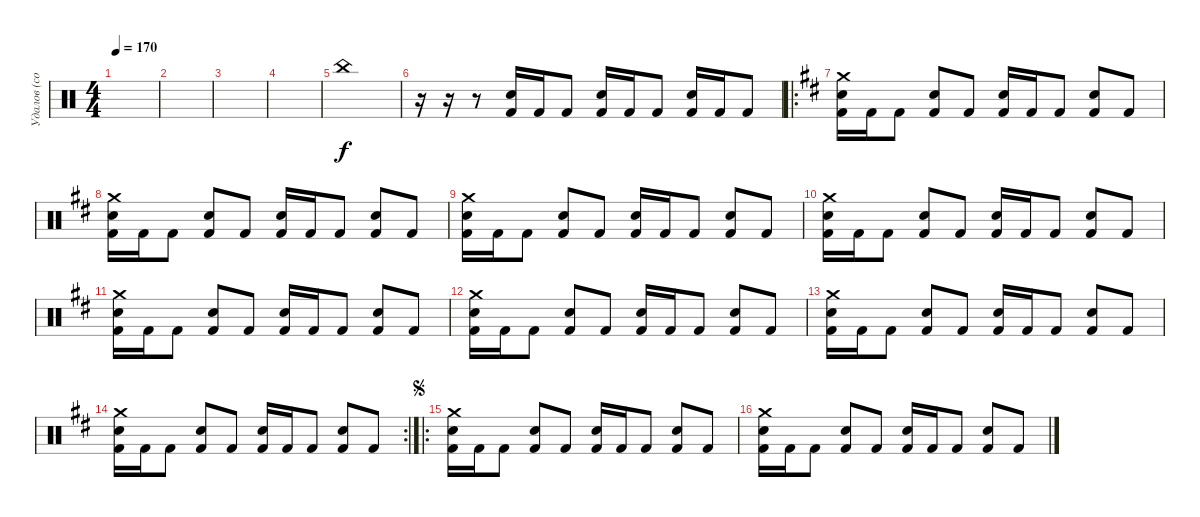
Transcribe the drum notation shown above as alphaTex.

\track ("Удалов (сорри за ударные)" "Удалов (со") {instrument percussion}
\staff {score}
\articulation defaults
\ts (4 4)
\tempo 170
\clef neutral
\ks c
|
|
|
|
"China (hit)".1 |
r.16 r.16 r.8 ("Snare (hit) 2" "Kick (hit) 2").16 "Kick (hit) 2".16 "Kick (hit) 2".8 ("Snare (hit) 2" "Kick (hit) 2").16 "Kick (hit) 2".16 "Kick (hit) 2".8 ("Snare (hit) 2" "Kick (hit) 2").16 "Kick (hit) 2".16 "Kick (hit) 2".8 |
\ro
\ks d
("Crash medium (hit)" "Snare (hit) 2" "Kick (hit) 2").16 "Kick (hit) 2".16 "Kick (hit) 2".8 ("Snare (hit) 2" "Kick (hit) 2").8 "Kick (hit) 2".8 ("Snare (hit) 2" "Kick (hit) 2").16 "Kick (hit) 2".16 "Kick (hit) 2".8 ("Snare (hit) 2" "Kick (hit) 2").8 "Kick (hit) 2".8 |
("Crash medium (hit)" "Snare (hit) 2" "Kick (hit) 2").16 "Kick (hit) 2".16 "Kick (hit) 2".8 ("Snare (hit) 2" "Kick (hit) 2").8 "Kick (hit) 2".8 ("Snare (hit) 2" "Kick (hit) 2").16 "Kick (hit) 2".16 "Kick (hit) 2".8 ("Snare (hit) 2" "Kick (hit) 2").8 "Kick (hit) 2".8 |
("Crash medium (hit)" "Snare (hit) 2" "Kick (hit) 2").16 "Kick (hit) 2".16 "Kick (hit) 2".8 ("Snare (hit) 2" "Kick (hit) 2").8 "Kick (hit) 2".8 ("Snare (hit) 2" "Kick (hit) 2").16 "Kick (hit) 2".16 "Kick (hit) 2".8 ("Snare (hit) 2" "Kick (hit) 2").8 "Kick (hit) 2".8 |
("Crash medium (hit)" "Snare (hit) 2" "Kick (hit) 2").16 "Kick (hit) 2".16 "Kick (hit) 2".8 ("Snare (hit) 2" "Kick (hit) 2").8 "Kick (hit) 2".8 ("Snare (hit) 2" "Kick (hit) 2").16 "Kick (hit) 2".16 "Kick (hit) 2".8 ("Snare (hit) 2" "Kick (hit) 2").8 "Kick (hit) 2".8 |
("Crash medium (hit)" "Snare (hit) 2" "Kick (hit) 2").16 "Kick (hit) 2".16 "Kick (hit) 2".8 ("Snare (hit) 2" "Kick (hit) 2").8 "Kick (hit) 2".8 ("Snare (hit) 2" "Kick (hit) 2").16 "Kick (hit) 2".16 "Kick (hit) 2".8 ("Snare (hit) 2" "Kick (hit) 2").8 "Kick (hit) 2".8 |
("Crash medium (hit)" "Snare (hit) 2" "Kick (hit) 2").16 "Kick (hit) 2".16 "Kick (hit) 2".8 ("Snare (hit) 2" "Kick (hit) 2").8 "Kick (hit) 2".8 ("Snare (hit) 2" "Kick (hit) 2").16 "Kick (hit) 2".16 "Kick (hit) 2".8 ("Snare (hit) 2" "Kick (hit) 2").8 "Kick (hit) 2".8 |
("Crash medium (hit)" "Snare (hit) 2" "Kick (hit) 2").16 "Kick (hit) 2".16 "Kick (hit) 2".8 ("Snare (hit) 2" "Kick (hit) 2").8 "Kick (hit) 2".8 ("Snare (hit) 2" "Kick (hit) 2").16 "Kick (hit) 2".16 "Kick (hit) 2".8 ("Snare (hit) 2" "Kick (hit) 2").8 "Kick (hit) 2".8 |
\rc 2
("Crash medium (hit)" "Snare (hit) 2" "Kick (hit) 2").16 "Kick (hit) 2".16 "Kick (hit) 2".8 ("Snare (hit) 2" "Kick (hit) 2").8 "Kick (hit) 2".8 ("Snare (hit) 2" "Kick (hit) 2").16 "Kick (hit) 2".16 "Kick (hit) 2".8 ("Snare (hit) 2" "Kick (hit) 2").8 "Kick (hit) 2".8 |
\ro
\jump segno
("Crash medium (hit)" "Snare (hit) 2" "Kick (hit) 2").16 "Kick (hit) 2".16 "Kick (hit) 2".8 ("Snare (hit) 2" "Kick (hit) 2").8 "Kick (hit) 2".8 ("Snare (hit) 2" "Kick (hit) 2").16 "Kick (hit) 2".16 "Kick (hit) 2".8 ("Snare (hit) 2" "Kick (hit) 2").8 "Kick (hit) 2".8 |
("Crash medium (hit)" "Snare (hit) 2" "Kick (hit) 2").16 "Kick (hit) 2".16 "Kick (hit) 2".8 ("Snare (hit) 2" "Kick (hit) 2").8 "Kick (hit) 2".8 ("Snare (hit) 2" "Kick (hit) 2").16 "Kick (hit) 2".16 "Kick (hit) 2".8 ("Snare (hit) 2" "Kick (hit) 2").8 "Kick (hit) 2".8
